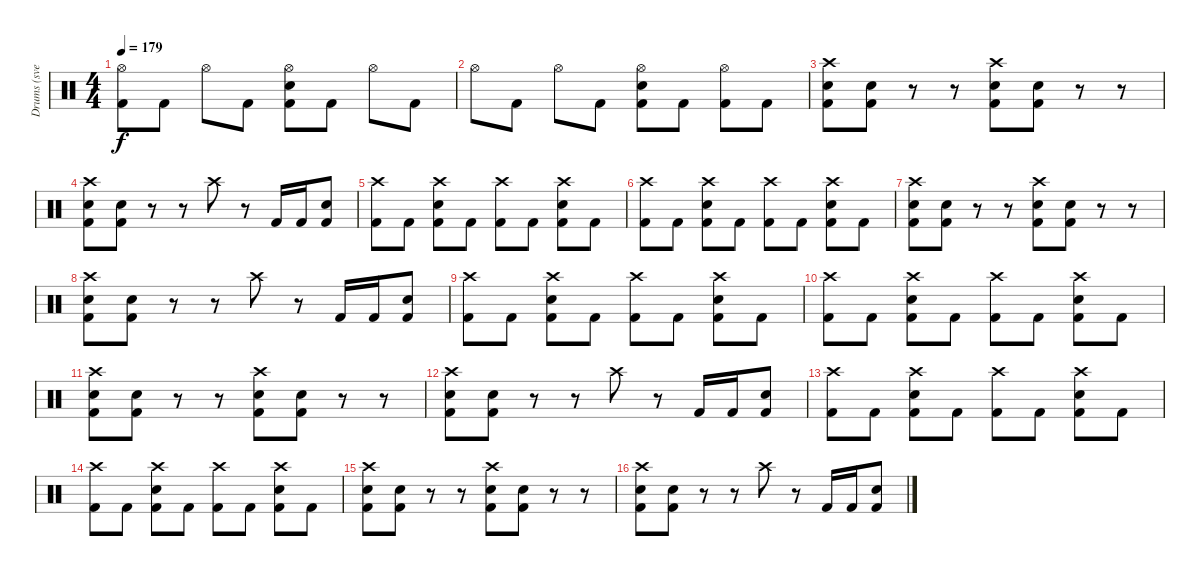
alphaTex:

\track ("Drums (svelle)" "Drums (sve") {instrument percussion}
\staff {score}
\articulation defaults
\ts (4 4)
\tempo 179
\clef neutral
\ks c
("Hi-Hat (open)" "Kick (hit) 2").8{dy f} "Kick (hit) 2".8 "Hi-Hat (open)".8 "Kick (hit) 2".8 ("Hi-Hat (open)" "Electric Snare (hit)" "Kick (hit) 2").8 "Kick (hit) 2".8 "Hi-Hat (open)".8 "Kick (hit) 2".8 |
"Hi-Hat (open)".8 "Kick (hit) 2".8 "Hi-Hat (open)".8 "Kick (hit) 2".8 ("Hi-Hat (open)" "Electric Snare (hit)" "Kick (hit) 2").8 "Kick (hit) 2".8 ("Hi-Hat (open)" "Kick (hit) 2").8 "Kick (hit) 2".8 |
("Crash high (hit)" "Electric Snare (hit)" "Kick (hit) 2").8 ("Electric Snare (hit)" "Kick (hit) 2").8 r.8 r.8 ("Crash high (hit)" "Electric Snare (hit)" "Kick (hit) 2").8 ("Electric Snare (hit)" "Kick (hit) 2").8 r.8 r.8 |
("Crash high (hit)" "Electric Snare (hit)" "Kick (hit) 2").8 ("Electric Snare (hit)" "Kick (hit) 2").8 r.8 r.8 "Crash high (hit)".8 r.8 "Kick (hit) 2".16 "Kick (hit) 2".16 ("Electric Snare (hit)" "Kick (hit) 2").8 |
("Crash high (hit)" "Kick (hit) 2").8 "Kick (hit) 2".8 ("Crash high (hit)" "Electric Snare (hit)" "Kick (hit) 2").8 "Kick (hit) 2".8 ("Crash high (hit)" "Kick (hit) 2").8 "Kick (hit) 2".8 ("Crash high (hit)" "Electric Snare (hit)" "Kick (hit) 2").8 "Kick (hit) 2".8 |
("Crash high (hit)" "Kick (hit) 2").8 "Kick (hit) 2".8 ("Crash high (hit)" "Electric Snare (hit)" "Kick (hit) 2").8 "Kick (hit) 2".8 ("Crash high (hit)" "Kick (hit) 2").8 "Kick (hit) 2".8 ("Crash high (hit)" "Electric Snare (hit)" "Kick (hit) 2").8 "Kick (hit) 2".8 |
("Crash high (hit)" "Electric Snare (hit)" "Kick (hit) 2").8 ("Electric Snare (hit)" "Kick (hit) 2").8 r.8 r.8 ("Crash high (hit)" "Electric Snare (hit)" "Kick (hit) 2").8 ("Electric Snare (hit)" "Kick (hit) 2").8 r.8 r.8 |
("Crash high (hit)" "Electric Snare (hit)" "Kick (hit) 2").8 ("Electric Snare (hit)" "Kick (hit) 2").8 r.8 r.8 "Crash high (hit)".8 r.8 "Kick (hit) 2".16 "Kick (hit) 2".16 ("Electric Snare (hit)" "Kick (hit) 2").8 |
("Crash high (hit)" "Kick (hit) 2").8 "Kick (hit) 2".8 ("Crash high (hit)" "Electric Snare (hit)" "Kick (hit) 2").8 "Kick (hit) 2".8 ("Crash high (hit)" "Kick (hit) 2").8 "Kick (hit) 2".8 ("Crash high (hit)" "Electric Snare (hit)" "Kick (hit) 2").8 "Kick (hit) 2".8 |
("Crash high (hit)" "Kick (hit) 2").8 "Kick (hit) 2".8 ("Crash high (hit)" "Electric Snare (hit)" "Kick (hit) 2").8 "Kick (hit) 2".8 ("Crash high (hit)" "Kick (hit) 2").8 "Kick (hit) 2".8 ("Crash high (hit)" "Electric Snare (hit)" "Kick (hit) 2").8 "Kick (hit) 2".8 |
("Crash high (hit)" "Electric Snare (hit)" "Kick (hit) 2").8 ("Electric Snare (hit)" "Kick (hit) 2").8 r.8 r.8 ("Crash high (hit)" "Electric Snare (hit)" "Kick (hit) 2").8 ("Electric Snare (hit)" "Kick (hit) 2").8 r.8 r.8 |
("Crash high (hit)" "Electric Snare (hit)" "Kick (hit) 2").8 ("Electric Snare (hit)" "Kick (hit) 2").8 r.8 r.8 "Crash high (hit)".8 r.8 "Kick (hit) 2".16 "Kick (hit) 2".16 ("Electric Snare (hit)" "Kick (hit) 2").8 |
("Crash high (hit)" "Kick (hit) 2").8 "Kick (hit) 2".8 ("Crash high (hit)" "Electric Snare (hit)" "Kick (hit) 2").8 "Kick (hit) 2".8 ("Crash high (hit)" "Kick (hit) 2").8 "Kick (hit) 2".8 ("Crash high (hit)" "Electric Snare (hit)" "Kick (hit) 2").8 "Kick (hit) 2".8 |
("Crash high (hit)" "Kick (hit) 2").8 "Kick (hit) 2".8 ("Crash high (hit)" "Electric Snare (hit)" "Kick (hit) 2").8 "Kick (hit) 2".8 ("Crash high (hit)" "Kick (hit) 2").8 "Kick (hit) 2".8 ("Crash high (hit)" "Electric Snare (hit)" "Kick (hit) 2").8 "Kick (hit) 2".8 |
("Crash high (hit)" "Electric Snare (hit)" "Kick (hit) 2").8 ("Electric Snare (hit)" "Kick (hit) 2").8 r.8 r.8 ("Crash high (hit)" "Electric Snare (hit)" "Kick (hit) 2").8 ("Electric Snare (hit)" "Kick (hit) 2").8 r.8 r.8 |
("Crash high (hit)" "Electric Snare (hit)" "Kick (hit) 2").8 ("Electric Snare (hit)" "Kick (hit) 2").8 r.8 r.8 "Crash high (hit)".8 r.8 "Kick (hit) 2".16 "Kick (hit) 2".16 ("Electric Snare (hit)" "Kick (hit) 2").8
